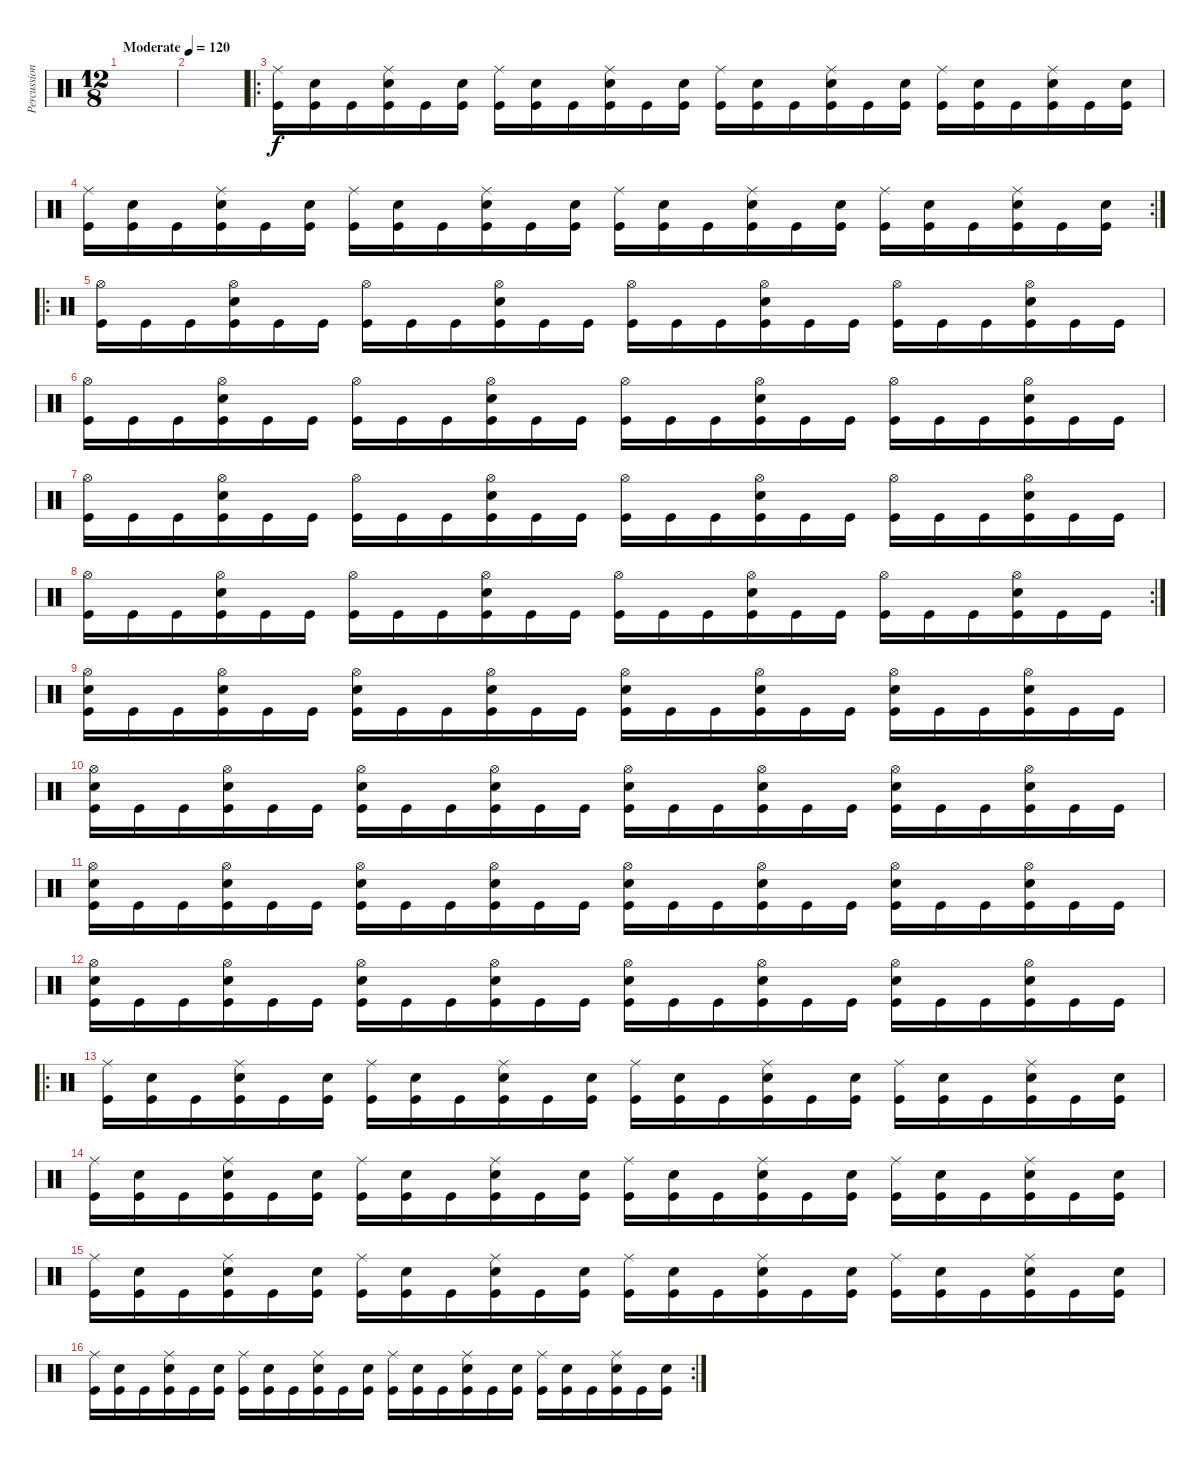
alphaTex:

\track ("Percussion" "Percussion") {instrument percussion}
\staff {score}
\articulation defaults
\ts (12 8)
\tempo (120 "Moderate")
\clef neutral
\ks c
|
|
\ro
("Ride (middle)" "Kick (hit)").16 ("Snare (hit) 2" "Kick (hit)").16 "Kick (hit)".16 ("Ride (middle)" "Snare (hit) 2" "Kick (hit)").16 "Kick (hit)".16 ("Snare (hit) 2" "Kick (hit)").16 ("Ride (middle)" "Kick (hit)").16 ("Snare (hit) 2" "Kick (hit)").16 "Kick (hit)".16 ("Ride (middle)" "Snare (hit) 2" "Kick (hit)").16 "Kick (hit)".16 ("Snare (hit) 2" "Kick (hit)").16 ("Ride (middle)" "Kick (hit)").16 ("Snare (hit) 2" "Kick (hit)").16 "Kick (hit)".16 ("Ride (middle)" "Snare (hit) 2" "Kick (hit)").16 "Kick (hit)".16 ("Snare (hit) 2" "Kick (hit)").16 ("Ride (middle)" "Kick (hit)").16 ("Snare (hit) 2" "Kick (hit)").16 "Kick (hit)".16 ("Ride (middle)" "Snare (hit) 2" "Kick (hit)").16 "Kick (hit)".16 ("Snare (hit) 2" "Kick (hit)").16 |
\rc 2
("Ride (middle)" "Kick (hit)").16 ("Snare (hit) 2" "Kick (hit)").16 "Kick (hit)".16 ("Ride (middle)" "Snare (hit) 2" "Kick (hit)").16 "Kick (hit)".16 ("Snare (hit) 2" "Kick (hit)").16 ("Ride (middle)" "Kick (hit)").16 ("Snare (hit) 2" "Kick (hit)").16 "Kick (hit)".16 ("Ride (middle)" "Snare (hit) 2" "Kick (hit)").16 "Kick (hit)".16 ("Snare (hit) 2" "Kick (hit)").16 ("Ride (middle)" "Kick (hit)").16 ("Snare (hit) 2" "Kick (hit)").16 "Kick (hit)".16 ("Ride (middle)" "Snare (hit) 2" "Kick (hit)").16 "Kick (hit)".16 ("Snare (hit) 2" "Kick (hit)").16 ("Ride (middle)" "Kick (hit)").16 ("Snare (hit) 2" "Kick (hit)").16 "Kick (hit)".16 ("Ride (middle)" "Snare (hit) 2" "Kick (hit)").16 "Kick (hit)".16 ("Snare (hit) 2" "Kick (hit)").16 |
\ro
("Hi-Hat (open)" "Kick (hit)").16 "Kick (hit)".16 "Kick (hit)".16 ("Hi-Hat (open)" "Snare (hit) 2" "Kick (hit)").16 "Kick (hit)".16 "Kick (hit)".16 ("Hi-Hat (open)" "Kick (hit)").16 "Kick (hit)".16 "Kick (hit)".16 ("Hi-Hat (open)" "Snare (hit) 2" "Kick (hit)").16 "Kick (hit)".16 "Kick (hit)".16 ("Hi-Hat (open)" "Kick (hit)").16 "Kick (hit)".16 "Kick (hit)".16 ("Hi-Hat (open)" "Snare (hit) 2" "Kick (hit)").16 "Kick (hit)".16 "Kick (hit)".16 ("Hi-Hat (open)" "Kick (hit)").16 "Kick (hit)".16 "Kick (hit)".16 ("Hi-Hat (open)" "Snare (hit) 2" "Kick (hit)").16 "Kick (hit)".16 "Kick (hit)".16 |
("Hi-Hat (open)" "Kick (hit)").16 "Kick (hit)".16 "Kick (hit)".16 ("Hi-Hat (open)" "Snare (hit) 2" "Kick (hit)").16 "Kick (hit)".16 "Kick (hit)".16 ("Hi-Hat (open)" "Kick (hit)").16 "Kick (hit)".16 "Kick (hit)".16 ("Hi-Hat (open)" "Snare (hit) 2" "Kick (hit)").16 "Kick (hit)".16 "Kick (hit)".16 ("Hi-Hat (open)" "Kick (hit)").16 "Kick (hit)".16 "Kick (hit)".16 ("Hi-Hat (open)" "Snare (hit) 2" "Kick (hit)").16 "Kick (hit)".16 "Kick (hit)".16 ("Hi-Hat (open)" "Kick (hit)").16 "Kick (hit)".16 "Kick (hit)".16 ("Hi-Hat (open)" "Snare (hit) 2" "Kick (hit)").16 "Kick (hit)".16 "Kick (hit)".16 |
("Hi-Hat (open)" "Kick (hit)").16 "Kick (hit)".16 "Kick (hit)".16 ("Hi-Hat (open)" "Snare (hit) 2" "Kick (hit)").16 "Kick (hit)".16 "Kick (hit)".16 ("Hi-Hat (open)" "Kick (hit)").16 "Kick (hit)".16 "Kick (hit)".16 ("Hi-Hat (open)" "Snare (hit) 2" "Kick (hit)").16 "Kick (hit)".16 "Kick (hit)".16 ("Hi-Hat (open)" "Kick (hit)").16 "Kick (hit)".16 "Kick (hit)".16 ("Hi-Hat (open)" "Snare (hit) 2" "Kick (hit)").16 "Kick (hit)".16 "Kick (hit)".16 ("Hi-Hat (open)" "Kick (hit)").16 "Kick (hit)".16 "Kick (hit)".16 ("Hi-Hat (open)" "Snare (hit) 2" "Kick (hit)").16 "Kick (hit)".16 "Kick (hit)".16 |
\rc 2
("Hi-Hat (open)" "Kick (hit)").16 "Kick (hit)".16 "Kick (hit)".16 ("Hi-Hat (open)" "Snare (hit) 2" "Kick (hit)").16 "Kick (hit)".16 "Kick (hit)".16 ("Hi-Hat (open)" "Kick (hit)").16 "Kick (hit)".16 "Kick (hit)".16 ("Hi-Hat (open)" "Snare (hit) 2" "Kick (hit)").16 "Kick (hit)".16 "Kick (hit)".16 ("Hi-Hat (open)" "Kick (hit)").16 "Kick (hit)".16 "Kick (hit)".16 ("Hi-Hat (open)" "Snare (hit) 2" "Kick (hit)").16 "Kick (hit)".16 "Kick (hit)".16 ("Hi-Hat (open)" "Kick (hit)").16 "Kick (hit)".16 "Kick (hit)".16 ("Hi-Hat (open)" "Snare (hit) 2" "Kick (hit)").16 "Kick (hit)".16 "Kick (hit)".16 |
("Hi-Hat (open)" "Snare (hit) 2" "Kick (hit)").16 "Kick (hit)".16 "Kick (hit)".16 ("Hi-Hat (open)" "Snare (hit) 2" "Kick (hit)").16 "Kick (hit)".16 "Kick (hit)".16 ("Hi-Hat (open)" "Snare (hit) 2" "Kick (hit)").16 "Kick (hit)".16 "Kick (hit)".16 ("Hi-Hat (open)" "Snare (hit) 2" "Kick (hit)").16 "Kick (hit)".16 "Kick (hit)".16 ("Hi-Hat (open)" "Snare (hit) 2" "Kick (hit)").16 "Kick (hit)".16 "Kick (hit)".16 ("Hi-Hat (open)" "Snare (hit) 2" "Kick (hit)").16 "Kick (hit)".16 "Kick (hit)".16 ("Hi-Hat (open)" "Snare (hit) 2" "Kick (hit)").16 "Kick (hit)".16 "Kick (hit)".16 ("Hi-Hat (open)" "Snare (hit) 2" "Kick (hit)").16 "Kick (hit)".16 "Kick (hit)".16 |
("Hi-Hat (open)" "Snare (hit) 2" "Kick (hit)").16 "Kick (hit)".16 "Kick (hit)".16 ("Hi-Hat (open)" "Snare (hit) 2" "Kick (hit)").16 "Kick (hit)".16 "Kick (hit)".16 ("Hi-Hat (open)" "Snare (hit) 2" "Kick (hit)").16 "Kick (hit)".16 "Kick (hit)".16 ("Hi-Hat (open)" "Snare (hit) 2" "Kick (hit)").16 "Kick (hit)".16 "Kick (hit)".16 ("Hi-Hat (open)" "Snare (hit) 2" "Kick (hit)").16 "Kick (hit)".16 "Kick (hit)".16 ("Hi-Hat (open)" "Snare (hit) 2" "Kick (hit)").16 "Kick (hit)".16 "Kick (hit)".16 ("Hi-Hat (open)" "Snare (hit) 2" "Kick (hit)").16 "Kick (hit)".16 "Kick (hit)".16 ("Hi-Hat (open)" "Snare (hit) 2" "Kick (hit)").16 "Kick (hit)".16 "Kick (hit)".16 |
("Hi-Hat (open)" "Snare (hit) 2" "Kick (hit)").16 "Kick (hit)".16 "Kick (hit)".16 ("Hi-Hat (open)" "Snare (hit) 2" "Kick (hit)").16 "Kick (hit)".16 "Kick (hit)".16 ("Hi-Hat (open)" "Snare (hit) 2" "Kick (hit)").16 "Kick (hit)".16 "Kick (hit)".16 ("Hi-Hat (open)" "Snare (hit) 2" "Kick (hit)").16 "Kick (hit)".16 "Kick (hit)".16 ("Hi-Hat (open)" "Snare (hit) 2" "Kick (hit)").16 "Kick (hit)".16 "Kick (hit)".16 ("Hi-Hat (open)" "Snare (hit) 2" "Kick (hit)").16 "Kick (hit)".16 "Kick (hit)".16 ("Hi-Hat (open)" "Snare (hit) 2" "Kick (hit)").16 "Kick (hit)".16 "Kick (hit)".16 ("Hi-Hat (open)" "Snare (hit) 2" "Kick (hit)").16 "Kick (hit)".16 "Kick (hit)".16 |
("Hi-Hat (open)" "Snare (hit) 2" "Kick (hit)").16 "Kick (hit)".16 "Kick (hit)".16 ("Hi-Hat (open)" "Snare (hit) 2" "Kick (hit)").16 "Kick (hit)".16 "Kick (hit)".16 ("Hi-Hat (open)" "Snare (hit) 2" "Kick (hit)").16 "Kick (hit)".16 "Kick (hit)".16 ("Hi-Hat (open)" "Snare (hit) 2" "Kick (hit)").16 "Kick (hit)".16 "Kick (hit)".16 ("Hi-Hat (open)" "Snare (hit) 2" "Kick (hit)").16 "Kick (hit)".16 "Kick (hit)".16 ("Hi-Hat (open)" "Snare (hit) 2" "Kick (hit)").16 "Kick (hit)".16 "Kick (hit)".16 ("Hi-Hat (open)" "Snare (hit) 2" "Kick (hit)").16 "Kick (hit)".16 "Kick (hit)".16 ("Hi-Hat (open)" "Snare (hit) 2" "Kick (hit)").16 "Kick (hit)".16 "Kick (hit)".16 |
\ro
("Ride (middle)" "Kick (hit)").16 ("Snare (hit) 2" "Kick (hit)").16 "Kick (hit)".16 ("Ride (middle)" "Snare (hit) 2" "Kick (hit)").16 "Kick (hit)".16 ("Snare (hit) 2" "Kick (hit)").16 ("Ride (middle)" "Kick (hit)").16 ("Snare (hit) 2" "Kick (hit)").16 "Kick (hit)".16 ("Ride (middle)" "Snare (hit) 2" "Kick (hit)").16 "Kick (hit)".16 ("Snare (hit) 2" "Kick (hit)").16 ("Ride (middle)" "Kick (hit)").16 ("Snare (hit) 2" "Kick (hit)").16 "Kick (hit)".16 ("Ride (middle)" "Snare (hit) 2" "Kick (hit)").16 "Kick (hit)".16 ("Snare (hit) 2" "Kick (hit)").16 ("Ride (middle)" "Kick (hit)").16 ("Snare (hit) 2" "Kick (hit)").16 "Kick (hit)".16 ("Ride (middle)" "Snare (hit) 2" "Kick (hit)").16 "Kick (hit)".16 ("Snare (hit) 2" "Kick (hit)").16 |
("Ride (middle)" "Kick (hit)").16 ("Snare (hit) 2" "Kick (hit)").16 "Kick (hit)".16 ("Ride (middle)" "Snare (hit) 2" "Kick (hit)").16 "Kick (hit)".16 ("Snare (hit) 2" "Kick (hit)").16 ("Ride (middle)" "Kick (hit)").16 ("Snare (hit) 2" "Kick (hit)").16 "Kick (hit)".16 ("Ride (middle)" "Snare (hit) 2" "Kick (hit)").16 "Kick (hit)".16 ("Snare (hit) 2" "Kick (hit)").16 ("Ride (middle)" "Kick (hit)").16 ("Snare (hit) 2" "Kick (hit)").16 "Kick (hit)".16 ("Ride (middle)" "Snare (hit) 2" "Kick (hit)").16 "Kick (hit)".16 ("Snare (hit) 2" "Kick (hit)").16 ("Ride (middle)" "Kick (hit)").16 ("Snare (hit) 2" "Kick (hit)").16 "Kick (hit)".16 ("Ride (middle)" "Snare (hit) 2" "Kick (hit)").16 "Kick (hit)".16 ("Snare (hit) 2" "Kick (hit)").16 |
("Ride (middle)" "Kick (hit)").16 ("Snare (hit) 2" "Kick (hit)").16 "Kick (hit)".16 ("Ride (middle)" "Snare (hit) 2" "Kick (hit)").16 "Kick (hit)".16 ("Snare (hit) 2" "Kick (hit)").16 ("Ride (middle)" "Kick (hit)").16 ("Snare (hit) 2" "Kick (hit)").16 "Kick (hit)".16 ("Ride (middle)" "Snare (hit) 2" "Kick (hit)").16 "Kick (hit)".16 ("Snare (hit) 2" "Kick (hit)").16 ("Ride (middle)" "Kick (hit)").16 ("Snare (hit) 2" "Kick (hit)").16 "Kick (hit)".16 ("Ride (middle)" "Snare (hit) 2" "Kick (hit)").16 "Kick (hit)".16 ("Snare (hit) 2" "Kick (hit)").16 ("Ride (middle)" "Kick (hit)").16 ("Snare (hit) 2" "Kick (hit)").16 "Kick (hit)".16 ("Ride (middle)" "Snare (hit) 2" "Kick (hit)").16 "Kick (hit)".16 ("Snare (hit) 2" "Kick (hit)").16 |
\rc 2
("Ride (middle)" "Kick (hit)").16 ("Snare (hit) 2" "Kick (hit)").16 "Kick (hit)".16 ("Ride (middle)" "Snare (hit) 2" "Kick (hit)").16 "Kick (hit)".16 ("Snare (hit) 2" "Kick (hit)").16 ("Ride (middle)" "Kick (hit)").16 ("Snare (hit) 2" "Kick (hit)").16 "Kick (hit)".16 ("Ride (middle)" "Snare (hit) 2" "Kick (hit)").16 "Kick (hit)".16 ("Snare (hit) 2" "Kick (hit)").16 ("Ride (middle)" "Kick (hit)").16 ("Snare (hit) 2" "Kick (hit)").16 "Kick (hit)".16 ("Ride (middle)" "Snare (hit) 2" "Kick (hit)").16 "Kick (hit)".16 ("Snare (hit) 2" "Kick (hit)").16 ("Ride (middle)" "Kick (hit)").16 ("Snare (hit) 2" "Kick (hit)").16 "Kick (hit)".16 ("Ride (middle)" "Snare (hit) 2" "Kick (hit)").16 "Kick (hit)".16 ("Snare (hit) 2" "Kick (hit)").16
